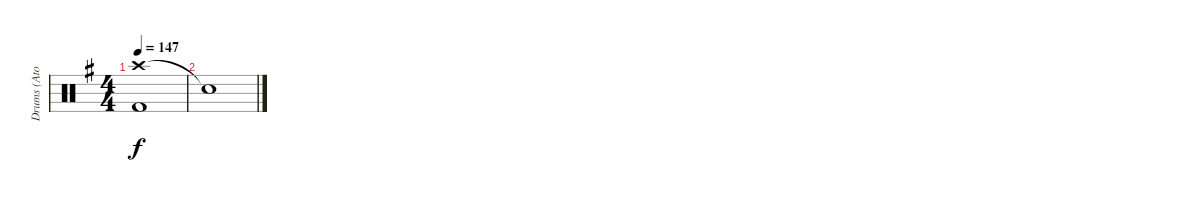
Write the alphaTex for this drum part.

\track ("Drums (Atom Willard)" "Drums (Ato") {instrument percussion}
\staff {score}
\articulation defaults
\ts (4 4)
\tempo 147
\clef neutral
\ks g
("Crash high (hit)" "Kick (hit) 2").1{dy f} |
"Snare (hit)"{t}.1
